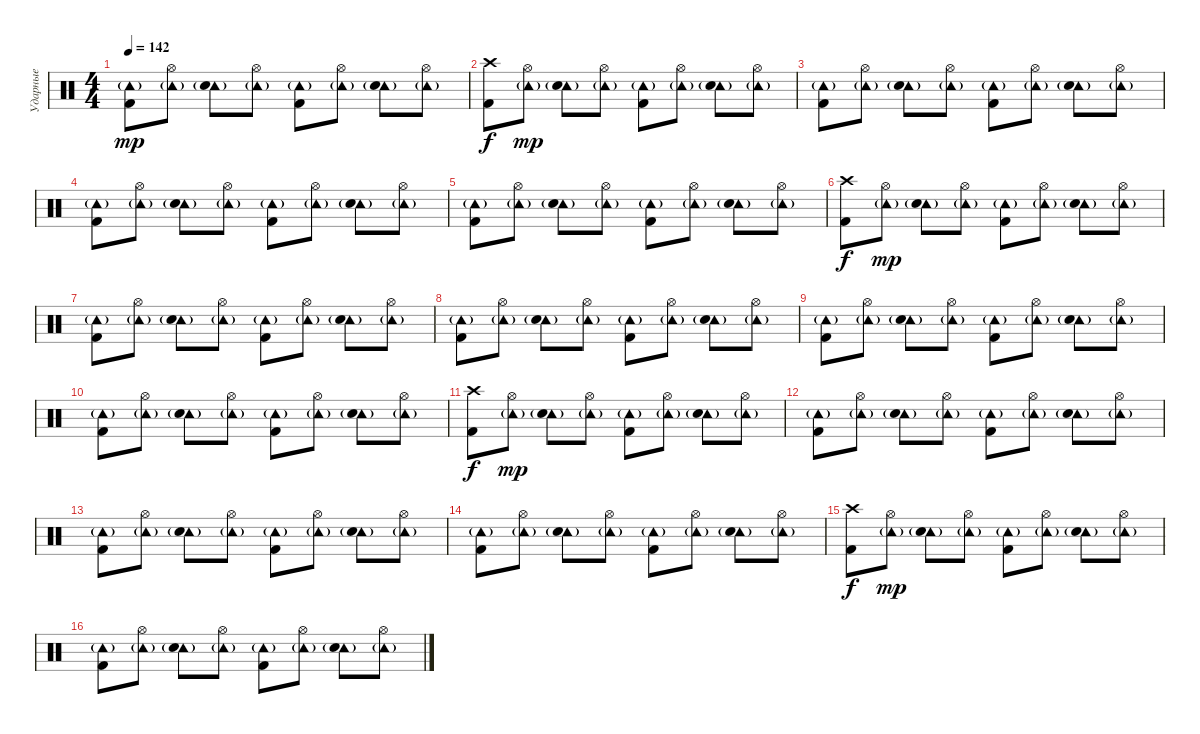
\track ("Ударные" "Ударные") {instrument percussion}
\staff {score}
\articulation defaults
\ts (4 4)
\tempo 142
\clef neutral
\ks c
("Tambourine (hit)"{g} "Kick (hit) 2").8{dy mp} ("Tambourine (hit)"{g} "Hi-Hat (open)").8 ("Tambourine (hit)"{g} "Electric Snare (hit)").8 ("Tambourine (hit)"{g} "Hi-Hat (open)").8 ("Tambourine (hit)"{g} "Kick (hit) 2").8 ("Tambourine (hit)"{g} "Hi-Hat (open)").8 ("Tambourine (hit)"{g} "Electric Snare (hit)").8 ("Tambourine (hit)"{g} "Hi-Hat (open)").8 |
("Crash high (hit)" "Kick (hit) 2").8{dy f} ("Tambourine (hit)"{g} "Hi-Hat (open)").8{dy mp} ("Tambourine (hit)"{g} "Electric Snare (hit)").8 ("Tambourine (hit)"{g} "Hi-Hat (open)").8 ("Tambourine (hit)"{g} "Kick (hit) 2").8 ("Tambourine (hit)"{g} "Hi-Hat (open)").8 ("Tambourine (hit)"{g} "Electric Snare (hit)").8 ("Tambourine (hit)"{g} "Hi-Hat (open)").8 |
("Tambourine (hit)"{g} "Kick (hit) 2").8 ("Tambourine (hit)"{g} "Hi-Hat (open)").8 ("Tambourine (hit)"{g} "Electric Snare (hit)").8 ("Tambourine (hit)"{g} "Hi-Hat (open)").8 ("Tambourine (hit)"{g} "Kick (hit) 2").8 ("Tambourine (hit)"{g} "Hi-Hat (open)").8 ("Tambourine (hit)"{g} "Electric Snare (hit)").8 ("Tambourine (hit)"{g} "Hi-Hat (open)").8 |
("Tambourine (hit)"{g} "Kick (hit) 2").8 ("Tambourine (hit)"{g} "Hi-Hat (open)").8 ("Tambourine (hit)"{g} "Electric Snare (hit)").8 ("Tambourine (hit)"{g} "Hi-Hat (open)").8 ("Tambourine (hit)"{g} "Kick (hit) 2").8 ("Tambourine (hit)"{g} "Hi-Hat (open)").8 ("Tambourine (hit)"{g} "Electric Snare (hit)").8 ("Tambourine (hit)"{g} "Hi-Hat (open)").8 |
("Tambourine (hit)"{g} "Kick (hit) 2").8 ("Tambourine (hit)"{g} "Hi-Hat (open)").8 ("Tambourine (hit)"{g} "Electric Snare (hit)").8 ("Tambourine (hit)"{g} "Hi-Hat (open)").8 ("Tambourine (hit)"{g} "Kick (hit) 2").8 ("Tambourine (hit)"{g} "Hi-Hat (open)").8 ("Tambourine (hit)"{g} "Electric Snare (hit)").8 ("Tambourine (hit)"{g} "Hi-Hat (open)").8 |
("Crash high (hit)" "Kick (hit) 2").8{dy f} ("Tambourine (hit)"{g} "Hi-Hat (open)").8{dy mp} ("Tambourine (hit)"{g} "Electric Snare (hit)").8 ("Tambourine (hit)"{g} "Hi-Hat (open)").8 ("Tambourine (hit)"{g} "Kick (hit) 2").8 ("Tambourine (hit)"{g} "Hi-Hat (open)").8 ("Tambourine (hit)"{g} "Electric Snare (hit)").8 ("Tambourine (hit)"{g} "Hi-Hat (open)").8 |
("Tambourine (hit)"{g} "Kick (hit) 2").8 ("Tambourine (hit)"{g} "Hi-Hat (open)").8 ("Tambourine (hit)"{g} "Electric Snare (hit)").8 ("Tambourine (hit)"{g} "Hi-Hat (open)").8 ("Tambourine (hit)"{g} "Kick (hit) 2").8 ("Tambourine (hit)"{g} "Hi-Hat (open)").8 ("Tambourine (hit)"{g} "Electric Snare (hit)").8 ("Tambourine (hit)"{g} "Hi-Hat (open)").8 |
("Tambourine (hit)"{g} "Kick (hit) 2").8 ("Tambourine (hit)"{g} "Hi-Hat (open)").8 ("Tambourine (hit)"{g} "Electric Snare (hit)").8 ("Tambourine (hit)"{g} "Hi-Hat (open)").8 ("Tambourine (hit)"{g} "Kick (hit) 2").8 ("Tambourine (hit)"{g} "Hi-Hat (open)").8 ("Tambourine (hit)"{g} "Electric Snare (hit)").8 ("Tambourine (hit)"{g} "Hi-Hat (open)").8 |
("Tambourine (hit)"{g} "Kick (hit) 2").8 ("Tambourine (hit)"{g} "Hi-Hat (open)").8 ("Tambourine (hit)"{g} "Electric Snare (hit)").8 ("Tambourine (hit)"{g} "Hi-Hat (open)").8 ("Tambourine (hit)"{g} "Kick (hit) 2").8 ("Tambourine (hit)"{g} "Hi-Hat (open)").8 ("Tambourine (hit)"{g} "Electric Snare (hit)").8 ("Tambourine (hit)"{g} "Hi-Hat (open)").8 |
("Tambourine (hit)"{g} "Kick (hit) 2").8 ("Tambourine (hit)"{g} "Hi-Hat (open)").8 ("Tambourine (hit)"{g} "Electric Snare (hit)").8 ("Tambourine (hit)"{g} "Hi-Hat (open)").8 ("Tambourine (hit)"{g} "Kick (hit) 2").8 ("Tambourine (hit)"{g} "Hi-Hat (open)").8 ("Tambourine (hit)"{g} "Electric Snare (hit)").8 ("Tambourine (hit)"{g} "Hi-Hat (open)").8 |
("Crash high (hit)" "Kick (hit) 2").8{dy f} ("Tambourine (hit)"{g} "Hi-Hat (open)").8{dy mp} ("Tambourine (hit)"{g} "Electric Snare (hit)").8 ("Tambourine (hit)"{g} "Hi-Hat (open)").8 ("Tambourine (hit)"{g} "Kick (hit) 2").8 ("Tambourine (hit)"{g} "Hi-Hat (open)").8 ("Tambourine (hit)"{g} "Electric Snare (hit)").8 ("Tambourine (hit)"{g} "Hi-Hat (open)").8 |
("Tambourine (hit)"{g} "Kick (hit) 2").8 ("Tambourine (hit)"{g} "Hi-Hat (open)").8 ("Tambourine (hit)"{g} "Electric Snare (hit)").8 ("Tambourine (hit)"{g} "Hi-Hat (open)").8 ("Tambourine (hit)"{g} "Kick (hit) 2").8 ("Tambourine (hit)"{g} "Hi-Hat (open)").8 ("Tambourine (hit)"{g} "Electric Snare (hit)").8 ("Tambourine (hit)"{g} "Hi-Hat (open)").8 |
("Tambourine (hit)"{g} "Kick (hit) 2").8 ("Tambourine (hit)"{g} "Hi-Hat (open)").8 ("Tambourine (hit)"{g} "Electric Snare (hit)").8 ("Tambourine (hit)"{g} "Hi-Hat (open)").8 ("Tambourine (hit)"{g} "Kick (hit) 2").8 ("Tambourine (hit)"{g} "Hi-Hat (open)").8 ("Tambourine (hit)"{g} "Electric Snare (hit)").8 ("Tambourine (hit)"{g} "Hi-Hat (open)").8 |
("Tambourine (hit)"{g} "Kick (hit) 2").8 ("Tambourine (hit)"{g} "Hi-Hat (open)").8 ("Tambourine (hit)"{g} "Electric Snare (hit)").8 ("Tambourine (hit)"{g} "Hi-Hat (open)").8 ("Tambourine (hit)"{g} "Kick (hit) 2").8 ("Tambourine (hit)"{g} "Hi-Hat (open)").8 ("Tambourine (hit)"{g} "Electric Snare (hit)").8 ("Tambourine (hit)"{g} "Hi-Hat (open)").8 |
("Crash high (hit)" "Kick (hit) 2").8{dy f} ("Tambourine (hit)"{g} "Hi-Hat (open)").8{dy mp} ("Tambourine (hit)"{g} "Electric Snare (hit)").8 ("Tambourine (hit)"{g} "Hi-Hat (open)").8 ("Tambourine (hit)"{g} "Kick (hit) 2").8 ("Tambourine (hit)"{g} "Hi-Hat (open)").8 ("Tambourine (hit)"{g} "Electric Snare (hit)").8 ("Tambourine (hit)"{g} "Hi-Hat (open)").8 |
("Tambourine (hit)"{g} "Kick (hit) 2").8 ("Tambourine (hit)"{g} "Hi-Hat (open)").8 ("Tambourine (hit)"{g} "Electric Snare (hit)").8 ("Tambourine (hit)"{g} "Hi-Hat (open)").8 ("Tambourine (hit)"{g} "Kick (hit) 2").8 ("Tambourine (hit)"{g} "Hi-Hat (open)").8 ("Tambourine (hit)"{g} "Electric Snare (hit)").8 ("Tambourine (hit)"{g} "Hi-Hat (open)").8
